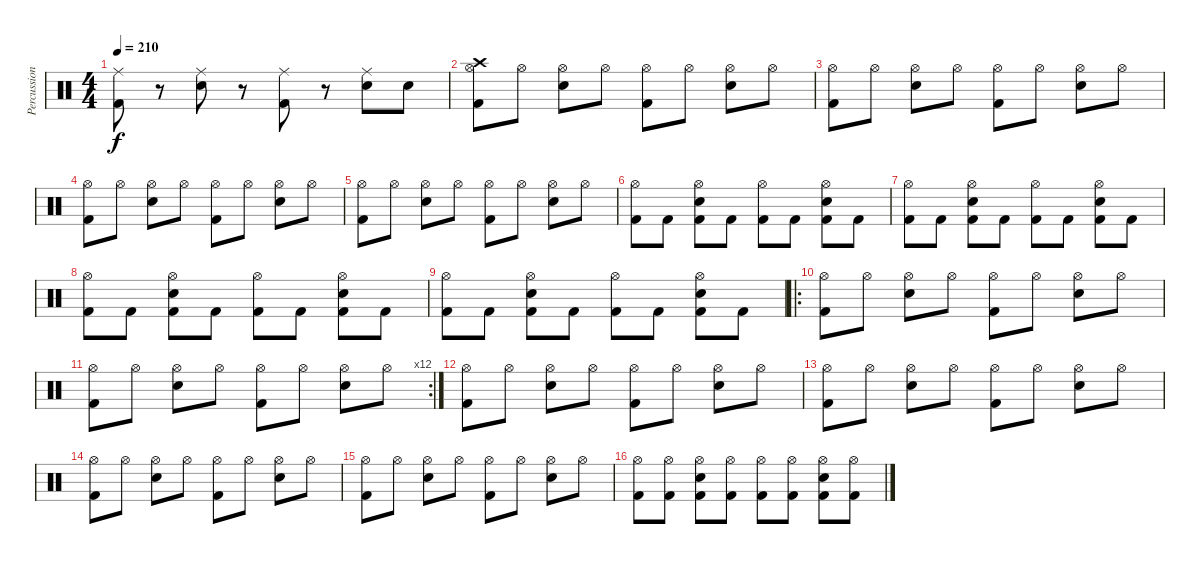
\track ("Percussion" "Percussion") {instrument percussion}
\staff {score}
\articulation defaults
\ts (4 4)
\tempo 210
\clef neutral
\ks c
("Ride (middle)" "Kick (hit) 2").8{dy f} r.8 ("Ride (middle)" "Snare (hit) 2").8 r.8 ("Ride (middle)" "Kick (hit) 2").8 r.8 ("Ride (middle)" "Snare (hit) 2").8 "Snare (hit) 2".8 |
("Hi-Hat (open)" "Crash high (hit)" "Kick (hit) 2").8 "Hi-Hat (open)".8 ("Hi-Hat (open)" "Snare (hit) 2").8 "Hi-Hat (open)".8 ("Hi-Hat (open)" "Kick (hit) 2").8 "Hi-Hat (open)".8 ("Hi-Hat (open)" "Snare (hit) 2").8 "Hi-Hat (open)".8 |
("Hi-Hat (open)" "Kick (hit) 2").8 "Hi-Hat (open)".8 ("Hi-Hat (open)" "Snare (hit) 2").8 "Hi-Hat (open)".8 ("Hi-Hat (open)" "Kick (hit) 2").8 "Hi-Hat (open)".8 ("Hi-Hat (open)" "Snare (hit) 2").8 "Hi-Hat (open)".8 |
("Hi-Hat (open)" "Kick (hit) 2").8 "Hi-Hat (open)".8 ("Hi-Hat (open)" "Snare (hit) 2").8 "Hi-Hat (open)".8 ("Hi-Hat (open)" "Kick (hit) 2").8 "Hi-Hat (open)".8 ("Hi-Hat (open)" "Snare (hit) 2").8 "Hi-Hat (open)".8 |
("Hi-Hat (open)" "Kick (hit) 2").8 "Hi-Hat (open)".8 ("Hi-Hat (open)" "Snare (hit) 2").8 "Hi-Hat (open)".8 ("Hi-Hat (open)" "Kick (hit) 2").8 "Hi-Hat (open)".8 ("Hi-Hat (open)" "Snare (hit) 2").8 "Hi-Hat (open)".8 |
("Hi-Hat (open)" "Kick (hit) 2").8 "Kick (hit) 2".8 ("Hi-Hat (open)" "Snare (hit) 2" "Kick (hit) 2").8 "Kick (hit) 2".8 ("Hi-Hat (open)" "Kick (hit) 2").8 "Kick (hit) 2".8 ("Hi-Hat (open)" "Snare (hit) 2" "Kick (hit) 2").8 "Kick (hit) 2".8 |
("Hi-Hat (open)" "Kick (hit) 2").8 "Kick (hit) 2".8 ("Hi-Hat (open)" "Snare (hit) 2" "Kick (hit) 2").8 "Kick (hit) 2".8 ("Hi-Hat (open)" "Kick (hit) 2").8 "Kick (hit) 2".8 ("Hi-Hat (open)" "Snare (hit) 2" "Kick (hit) 2").8 "Kick (hit) 2".8 |
("Hi-Hat (open)" "Kick (hit) 2").8 "Kick (hit) 2".8 ("Hi-Hat (open)" "Snare (hit) 2" "Kick (hit) 2").8 "Kick (hit) 2".8 ("Hi-Hat (open)" "Kick (hit) 2").8 "Kick (hit) 2".8 ("Hi-Hat (open)" "Snare (hit) 2" "Kick (hit) 2").8 "Kick (hit) 2".8 |
("Hi-Hat (open)" "Kick (hit) 2").8 "Kick (hit) 2".8 ("Hi-Hat (open)" "Snare (hit) 2" "Kick (hit) 2").8 "Kick (hit) 2".8 ("Hi-Hat (open)" "Kick (hit) 2").8 "Kick (hit) 2".8 ("Hi-Hat (open)" "Snare (hit) 2" "Kick (hit) 2").8 "Kick (hit) 2".8 |
\ro
("Hi-Hat (open)" "Kick (hit) 2").8 "Hi-Hat (open)".8 ("Hi-Hat (open)" "Snare (hit) 2").8 "Hi-Hat (open)".8 ("Hi-Hat (open)" "Kick (hit) 2").8 "Hi-Hat (open)".8 ("Hi-Hat (open)" "Snare (hit) 2").8 "Hi-Hat (open)".8 |
\rc 12
("Hi-Hat (open)" "Kick (hit) 2").8 "Hi-Hat (open)".8 ("Hi-Hat (open)" "Snare (hit) 2").8 "Hi-Hat (open)".8 ("Hi-Hat (open)" "Kick (hit) 2").8 "Hi-Hat (open)".8 ("Hi-Hat (open)" "Snare (hit) 2").8 "Hi-Hat (open)".8 |
("Hi-Hat (open)" "Kick (hit) 2").8 "Hi-Hat (open)".8 ("Hi-Hat (open)" "Snare (hit) 2").8 "Hi-Hat (open)".8 ("Hi-Hat (open)" "Kick (hit) 2").8 "Hi-Hat (open)".8 ("Hi-Hat (open)" "Snare (hit) 2").8 "Hi-Hat (open)".8 |
("Hi-Hat (open)" "Kick (hit) 2").8 "Hi-Hat (open)".8 ("Hi-Hat (open)" "Snare (hit) 2").8 "Hi-Hat (open)".8 ("Hi-Hat (open)" "Kick (hit) 2").8 "Hi-Hat (open)".8 ("Hi-Hat (open)" "Snare (hit) 2").8 "Hi-Hat (open)".8 |
("Hi-Hat (open)" "Kick (hit) 2").8 "Hi-Hat (open)".8 ("Hi-Hat (open)" "Snare (hit) 2").8 "Hi-Hat (open)".8 ("Hi-Hat (open)" "Kick (hit) 2").8 "Hi-Hat (open)".8 ("Hi-Hat (open)" "Snare (hit) 2").8 "Hi-Hat (open)".8 |
("Hi-Hat (open)" "Kick (hit) 2").8 "Hi-Hat (open)".8 ("Hi-Hat (open)" "Snare (hit) 2").8 "Hi-Hat (open)".8 ("Hi-Hat (open)" "Kick (hit) 2").8 "Hi-Hat (open)".8 ("Hi-Hat (open)" "Snare (hit) 2").8 "Hi-Hat (open)".8 |
("Hi-Hat (open)" "Kick (hit) 2").8 ("Hi-Hat (open)" "Kick (hit) 2").8 ("Hi-Hat (open)" "Snare (hit) 2" "Kick (hit) 2").8 ("Hi-Hat (open)" "Kick (hit) 2").8 ("Hi-Hat (open)" "Kick (hit) 2").8 ("Hi-Hat (open)" "Kick (hit) 2").8 ("Hi-Hat (open)" "Snare (hit) 2" "Kick (hit) 2").8 ("Hi-Hat (open)" "Kick (hit) 2").8
